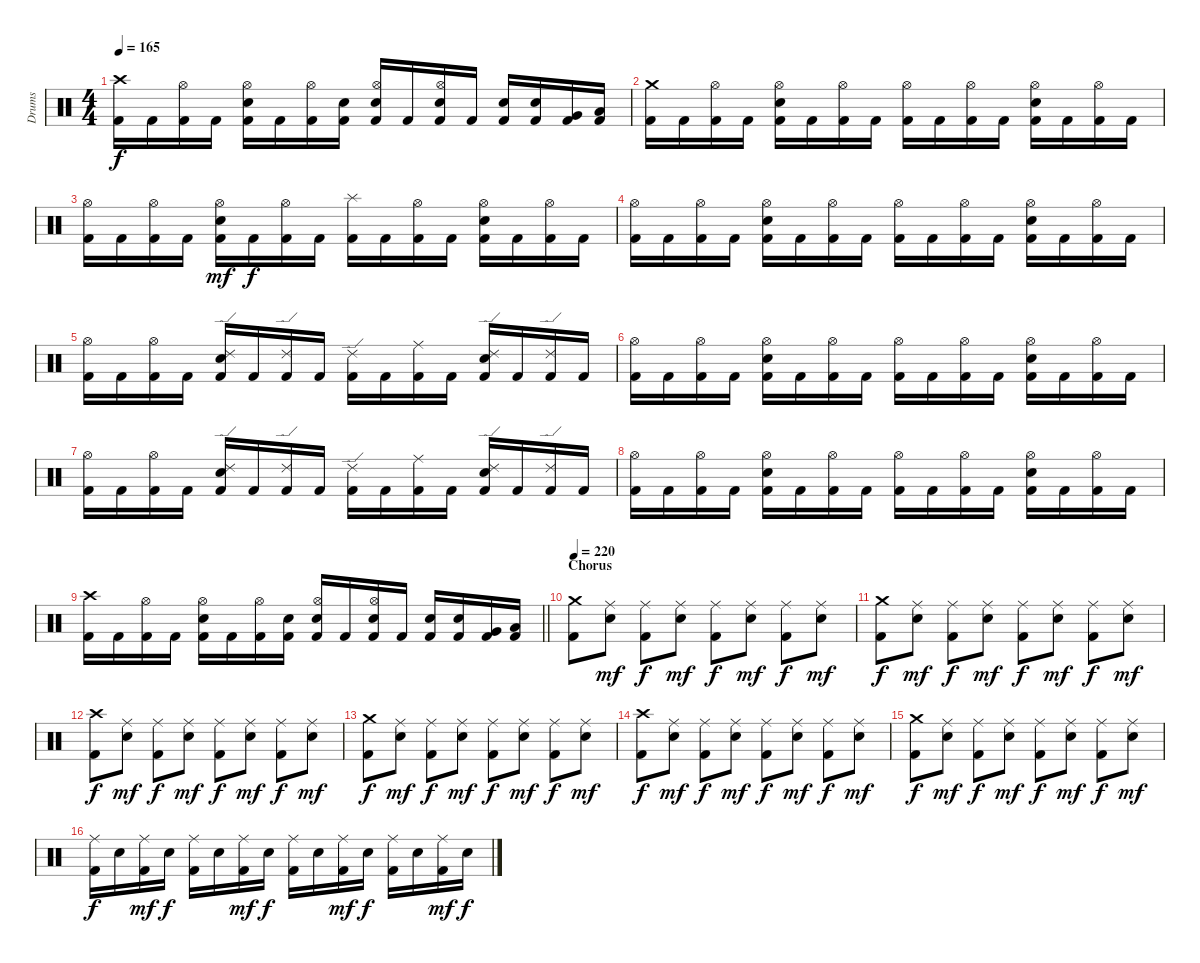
\track ("Drums" "Drums") {instrument percussion}
\staff {score}
\articulation defaults
\ts (4 4)
\tempo 165
\clef neutral
\ks c
("Crash high (hit)" "Kick (hit) 2").16{dy f} "Kick (hit) 2".16 ("Hi-Hat (open)" "Kick (hit) 2").16 "Kick (hit) 2".16 ("Hi-Hat (open)" "Snare (hit) 2" "Kick (hit) 2").16 "Kick (hit) 2".16 ("Hi-Hat (open)" "Kick (hit) 2").16 ("Snare (hit) 2" "Kick (hit) 2").16 ("Hi-Hat (open)" "Snare (hit) 2" "Kick (hit) 2").16 "Kick (hit) 2".16 ("Hi-Hat (open)" "Snare (hit) 2" "Kick (hit) 2").16 "Kick (hit) 2".16 ("Snare (hit) 2" "Kick (hit) 2").16 ("Snare (hit) 2" "Kick (hit) 2").16 ("Very Low Tom (hit)" "Kick (hit) 2").16 ("Low Floor Tom (hit)" "Kick (hit) 2").16 |
("Crash medium (hit)" "Kick (hit) 2").16 "Kick (hit) 2".16 ("Hi-Hat (open)" "Kick (hit) 2").16 "Kick (hit) 2".16 ("Hi-Hat (open)" "Snare (hit) 2" "Kick (hit) 2").16 "Kick (hit) 2".16 ("Hi-Hat (open)" "Kick (hit) 2").16 "Kick (hit) 2".16 ("Hi-Hat (open)" "Kick (hit) 2").16 "Kick (hit) 2".16 ("Hi-Hat (open)" "Kick (hit) 2").16 "Kick (hit) 2".16 ("Hi-Hat (open)" "Snare (hit) 2" "Kick (hit) 2").16 "Kick (hit) 2".16 ("Hi-Hat (open)" "Kick (hit) 2").16 "Kick (hit) 2".16 |
("Hi-Hat (open)" "Kick (hit) 2").16 "Kick (hit) 2".16 ("Hi-Hat (open)" "Kick (hit) 2").16 "Kick (hit) 2".16 ("Hi-Hat (open)" "Snare (hit) 2" "Kick (hit) 2").16{dy mf} "Kick (hit) 2".16{dy f} ("Hi-Hat (open)" "Kick (hit) 2").16 "Kick (hit) 2".16 ("Splash (hit)" "Kick (hit) 2").16 "Kick (hit) 2".16 ("Hi-Hat (open)" "Kick (hit) 2").16 "Kick (hit) 2".16 ("Hi-Hat (open)" "Snare (hit) 2" "Kick (hit) 2").16 "Kick (hit) 2".16 ("Hi-Hat (open)" "Kick (hit) 2").16 "Kick (hit) 2".16 |
("Hi-Hat (open)" "Kick (hit) 2").16 "Kick (hit) 2".16 ("Hi-Hat (open)" "Kick (hit) 2").16 "Kick (hit) 2".16 ("Hi-Hat (open)" "Snare (hit) 2" "Kick (hit) 2").16 "Kick (hit) 2".16 ("Hi-Hat (open)" "Kick (hit) 2").16 "Kick (hit) 2".16 ("Hi-Hat (open)" "Kick (hit) 2").16 "Kick (hit) 2".16 ("Hi-Hat (open)" "Kick (hit) 2").16 "Kick (hit) 2".16 ("Hi-Hat (open)" "Snare (hit) 2" "Kick (hit) 2").16 "Kick (hit) 2".16 ("Hi-Hat (open)" "Kick (hit) 2").16 "Kick (hit) 2".16 |
("Hi-Hat (open)" "Kick (hit) 2").16 "Kick (hit) 2".16 ("Hi-Hat (open)" "Kick (hit) 2").16 "Kick (hit) 2".16 ("Ride (edge) 2" "Snare (hit) 2" "Kick (hit) 2").16 "Kick (hit) 2".16 ("Ride (edge) 2" "Kick (hit) 2").16 "Kick (hit) 2".16 ("Ride (edge) 2" "Kick (hit) 2").16 "Kick (hit) 2".16 ("Ride (middle)" "Kick (hit) 2").16 "Kick (hit) 2".16 ("Ride (edge) 2" "Snare (hit) 2" "Kick (hit) 2").16 "Kick (hit) 2".16 ("Ride (edge) 2" "Kick (hit) 2").16 "Kick (hit) 2".16 |
("Hi-Hat (open)" "Kick (hit) 2").16 "Kick (hit) 2".16 ("Hi-Hat (open)" "Kick (hit) 2").16 "Kick (hit) 2".16 ("Hi-Hat (open)" "Snare (hit) 2" "Kick (hit) 2").16 "Kick (hit) 2".16 ("Hi-Hat (open)" "Kick (hit) 2").16 "Kick (hit) 2".16 ("Hi-Hat (open)" "Kick (hit) 2").16 "Kick (hit) 2".16 ("Hi-Hat (open)" "Kick (hit) 2").16 "Kick (hit) 2".16 ("Hi-Hat (open)" "Snare (hit) 2" "Kick (hit) 2").16 "Kick (hit) 2".16 ("Hi-Hat (open)" "Kick (hit) 2").16 "Kick (hit) 2".16 |
("Hi-Hat (open)" "Kick (hit) 2").16 "Kick (hit) 2".16 ("Hi-Hat (open)" "Kick (hit) 2").16 "Kick (hit) 2".16 ("Ride (edge) 2" "Snare (hit) 2" "Kick (hit) 2").16 "Kick (hit) 2".16 ("Ride (edge) 2" "Kick (hit) 2").16 "Kick (hit) 2".16 ("Ride (edge) 2" "Kick (hit) 2").16 "Kick (hit) 2".16 ("Ride (middle)" "Kick (hit) 2").16 "Kick (hit) 2".16 ("Ride (edge) 2" "Snare (hit) 2" "Kick (hit) 2").16 "Kick (hit) 2".16 ("Ride (edge) 2" "Kick (hit) 2").16 "Kick (hit) 2".16 |
("Hi-Hat (open)" "Kick (hit) 2").16 "Kick (hit) 2".16 ("Hi-Hat (open)" "Kick (hit) 2").16 "Kick (hit) 2".16 ("Hi-Hat (open)" "Snare (hit) 2" "Kick (hit) 2").16 "Kick (hit) 2".16 ("Hi-Hat (open)" "Kick (hit) 2").16 "Kick (hit) 2".16 ("Hi-Hat (open)" "Kick (hit) 2").16 "Kick (hit) 2".16 ("Hi-Hat (open)" "Kick (hit) 2").16 "Kick (hit) 2".16 ("Hi-Hat (open)" "Snare (hit) 2" "Kick (hit) 2").16 "Kick (hit) 2".16 ("Hi-Hat (open)" "Kick (hit) 2").16 "Kick (hit) 2".16 |
\barLineRight lightlight
("Crash high (hit)" "Kick (hit) 2").16 "Kick (hit) 2".16 ("Hi-Hat (open)" "Kick (hit) 2").16 "Kick (hit) 2".16 ("Hi-Hat (open)" "Snare (hit) 2" "Kick (hit) 2").16 "Kick (hit) 2".16 ("Hi-Hat (open)" "Kick (hit) 2").16 ("Snare (hit) 2" "Kick (hit) 2").16 ("Hi-Hat (open)" "Snare (hit) 2" "Kick (hit) 2").16 "Kick (hit) 2".16 ("Hi-Hat (open)" "Snare (hit) 2" "Kick (hit) 2").16 "Kick (hit) 2".16 ("Snare (hit) 2" "Kick (hit) 2").16 ("Snare (hit) 2" "Kick (hit) 2").16 ("Very Low Tom (hit)" "Kick (hit) 2").16 ("Low Floor Tom (hit)" "Kick (hit) 2").16 |
\section ("" "Chorus")
\tempo 220
("Crash medium (hit)" "Kick (hit) 2").8 ("Ride (middle)" "Snare (hit) 2").8{dy mf} ("Ride (middle)" "Kick (hit) 2").8{dy f} ("Ride (middle)" "Snare (hit) 2").8{dy mf} ("Ride (middle)" "Kick (hit) 2").8{dy f} ("Ride (middle)" "Snare (hit) 2").8{dy mf} ("Ride (middle)" "Kick (hit) 2").8{dy f} ("Ride (middle)" "Snare (hit) 2").8{dy mf} |
("Crash medium (hit)" "Kick (hit) 2").8{dy f} ("Ride (middle)" "Snare (hit) 2").8{dy mf} ("Ride (middle)" "Kick (hit) 2").8{dy f} ("Ride (middle)" "Snare (hit) 2").8{dy mf} ("Ride (middle)" "Kick (hit) 2").8{dy f} ("Ride (middle)" "Snare (hit) 2").8{dy mf} ("Ride (middle)" "Kick (hit) 2").8{dy f} ("Ride (middle)" "Snare (hit) 2").8{dy mf} |
("Crash high (hit)" "Kick (hit) 2").8{dy f} ("Ride (middle)" "Snare (hit) 2").8{dy mf} ("Ride (middle)" "Kick (hit) 2").8{dy f} ("Ride (middle)" "Snare (hit) 2").8{dy mf} ("Ride (middle)" "Kick (hit) 2").8{dy f} ("Ride (middle)" "Snare (hit) 2").8{dy mf} ("Ride (middle)" "Kick (hit) 2").8{dy f} ("Ride (middle)" "Snare (hit) 2").8{dy mf} |
("Crash medium (hit)" "Kick (hit) 2").8{dy f} ("Ride (middle)" "Snare (hit) 2").8{dy mf} ("Ride (middle)" "Kick (hit) 2").8{dy f} ("Ride (middle)" "Snare (hit) 2").8{dy mf} ("Ride (middle)" "Kick (hit) 2").8{dy f} ("Ride (middle)" "Snare (hit) 2").8{dy mf} ("Ride (middle)" "Kick (hit) 2").8{dy f} ("Ride (middle)" "Snare (hit) 2").8{dy mf} |
("Crash high (hit)" "Kick (hit) 2").8{dy f} ("Ride (middle)" "Snare (hit) 2").8{dy mf} ("Ride (middle)" "Kick (hit) 2").8{dy f} ("Ride (middle)" "Snare (hit) 2").8{dy mf} ("Ride (middle)" "Kick (hit) 2").8{dy f} ("Ride (middle)" "Snare (hit) 2").8{dy mf} ("Ride (middle)" "Kick (hit) 2").8{dy f} ("Ride (middle)" "Snare (hit) 2").8{dy mf} |
("Crash medium (hit)" "Kick (hit) 2").8{dy f} ("Ride (middle)" "Snare (hit) 2").8{dy mf} ("Ride (middle)" "Kick (hit) 2").8{dy f} ("Ride (middle)" "Snare (hit) 2").8{dy mf} ("Ride (middle)" "Kick (hit) 2").8{dy f} ("Ride (middle)" "Snare (hit) 2").8{dy mf} ("Ride (middle)" "Kick (hit) 2").8{dy f} ("Ride (middle)" "Snare (hit) 2").8{dy mf} |
("Ride (middle)" "Kick (hit) 2").16{dy f} "Snare (hit) 2".16 ("Ride (middle)" "Kick (hit) 2").16{dy mf} "Snare (hit) 2".16{dy f} ("Ride (middle)" "Kick (hit) 2").16 "Snare (hit) 2".16 ("Ride (middle)" "Kick (hit) 2").16{dy mf} "Snare (hit) 2".16{dy f} ("Ride (middle)" "Kick (hit) 2").16 "Snare (hit) 2".16 ("Ride (middle)" "Kick (hit) 2").16{dy mf} "Snare (hit) 2".16{dy f} ("Ride (middle)" "Kick (hit) 2").16 "Snare (hit) 2".16 ("Ride (middle)" "Kick (hit) 2").16{dy mf} "Snare (hit) 2".16{dy f}
